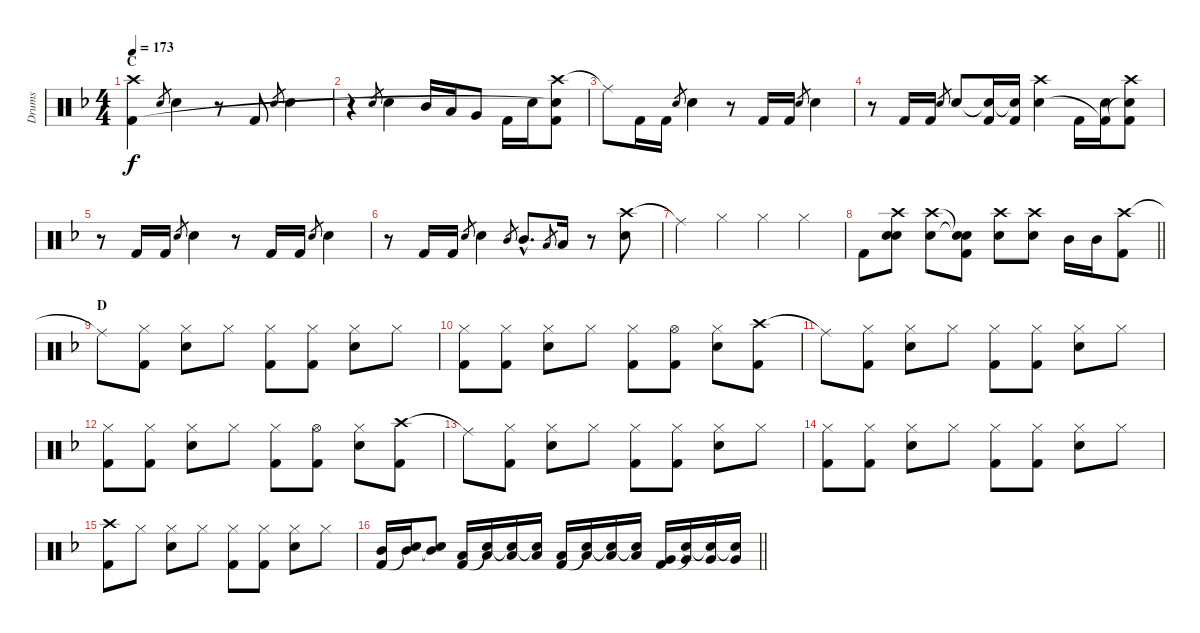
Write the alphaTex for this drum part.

\track ("Drums" "Drums") {instrument percussion}
\staff {score}
\articulation defaults
\ts (4 4)
\section ("" "C")
\tempo 173
\clef neutral
\ks dminor
("Crash high (hit)" "Kick (hit) 2").4{dy f} "Snare (hit) 2".8{gr} "Snare (hit) 2".4 r.8 "Kick (hit) 2".8 "Snare (hit) 2".8{gr} "Snare (hit) 2".4 |
r.4 "Snare (hit) 2".8{gr} "Snare (hit) 2".4 "Mid Tom (hit)".16 "Low Tom (hit)".16 "Very Low Tom (hit)".8 "Kick (hit) 2".16 "Snare (hit) 2".16 ("Crash high (hit)" "Snare (hit) 2"{t} "Kick (hit) 2").8 |
"Ride (middle)"{t}.8 "Kick (hit) 2".16 "Kick (hit) 2".16 "Snare (hit) 2".8{gr} "Snare (hit) 2".4 r.8 "Kick (hit) 2".16 "Kick (hit) 2".16 "Snare (hit) 2".8{gr} "Snare (hit) 2".4 |
r.8 "Kick (hit) 2".16 "Kick (hit) 2".16 "Snare (hit) 2".8{gr} "Snare (hit) 2".8 ("Snare (hit)"{t} "Kick (hit) 2").16 ("Snare (hit)"{t} "Kick (hit) 2").16 ("Crash high (hit)" "Snare (hit) 2").4 "Kick (hit) 2".16 ("Snare (hit) 2" "Kick (hit) 2"{t}).16 ("Crash high (hit)" "Snare (hit)"{t} "Kick (hit) 2").8 |
r.8 "Kick (hit) 2".16 "Kick (hit) 2".16 "Snare (hit) 2".8{gr} "Snare (hit) 2".4 r.8 "Kick (hit) 2".16 "Kick (hit) 2".16 "Snare (hit) 2".8{gr} "Snare (hit) 2".4 |
r.8 "Kick (hit) 2".16 "Kick (hit) 2".16 "Snare (hit) 2".8{gr} "Snare (hit) 2".4 "Mid Tom (hit)".8{gr} "Mid Tom (hit)"{hac}.8{d} "Low Tom (hit)".8{gr} "Low Tom (hit)".16 r.8 ("Crash high (hit)" "Snare (hit) 2").8 |
"Ride (middle)"{t}.4 "Hi-Hat (closed)".4 "Hi-Hat (closed)".4 "Hi-Hat (closed)".4 |
\barLineRight lightlight "Kick (hit) 2".8
("Crash high (hit)" "Snare (hit) 2" "Snare (hit)").8 ("Crash high (hit)" "Snare (hit) 2").8 ("Snare (hit)"{t} "Snare (hit)"{t} "Kick (hit) 2").8 ("Crash high (hit)" "Snare (hit) 2").8 ("Crash high (hit)" "Snare (hit) 2").8 "Mid Tom (hit)".16 "Mid Tom (hit)".16 ("Crash high (hit)" "Kick (hit) 2").8 |
\section ("" "D")
"Ride (middle)"{t}.8 ("Hi-Hat (closed)" "Kick (hit) 2").8 ("Hi-Hat (closed)" "Snare (hit) 2").8 "Hi-Hat (closed)".8 ("Hi-Hat (closed)" "Kick (hit) 2").8 ("Hi-Hat (closed)" "Kick (hit) 2").8 ("Hi-Hat (closed)" "Snare (hit) 2").8 "Hi-Hat (closed)".8 |
("Hi-Hat (closed)" "Kick (hit) 2").8 ("Hi-Hat (closed)" "Kick (hit) 2").8 ("Hi-Hat (closed)" "Snare (hit) 2").8 "Hi-Hat (closed)".8 ("Hi-Hat (closed)" "Kick (hit) 2").8 ("Hi-Hat (open)" "Kick (hit) 2").8 ("Hi-Hat (closed)" "Snare (hit) 2").8 ("Crash high (hit)" "Kick (hit) 2").8 |
"Ride (middle)"{t}.8 ("Hi-Hat (closed)" "Kick (hit) 2").8 ("Hi-Hat (closed)" "Snare (hit) 2").8 "Hi-Hat (closed)".8 ("Hi-Hat (closed)" "Kick (hit) 2").8 ("Hi-Hat (closed)" "Kick (hit) 2").8 ("Hi-Hat (closed)" "Snare (hit) 2").8 "Hi-Hat (closed)".8 |
("Hi-Hat (closed)" "Kick (hit) 2").8 ("Hi-Hat (closed)" "Kick (hit) 2").8 ("Hi-Hat (closed)" "Snare (hit) 2").8 "Hi-Hat (closed)".8 ("Hi-Hat (closed)" "Kick (hit) 2").8 ("Hi-Hat (open)" "Kick (hit) 2").8 ("Hi-Hat (closed)" "Snare (hit) 2").8 ("Crash high (hit)" "Kick (hit) 2").8 |
"Ride (middle)"{t}.8 ("Hi-Hat (closed)" "Kick (hit) 2").8 ("Hi-Hat (closed)" "Snare (hit) 2").8 "Hi-Hat (closed)".8 ("Hi-Hat (closed)" "Kick (hit) 2").8 ("Hi-Hat (closed)" "Kick (hit) 2").8 ("Hi-Hat (closed)" "Snare (hit) 2").8 "Hi-Hat (closed)".8 |
("Hi-Hat (closed)" "Kick (hit) 2").8 ("Hi-Hat (closed)" "Kick (hit) 2").8 ("Hi-Hat (closed)" "Snare (hit) 2").8 "Hi-Hat (closed)".8 ("Hi-Hat (closed)" "Kick (hit) 2").8 ("Hi-Hat (closed)" "Kick (hit) 2").8 ("Hi-Hat (closed)" "Snare (hit) 2").8 "Hi-Hat (closed)".8 |
("Crash high (hit)" "Kick (hit) 2").8 "Hi-Hat (closed)".8 ("Hi-Hat (closed)" "Snare (hit) 2").8 "Hi-Hat (closed)".8 ("Hi-Hat (closed)" "Kick (hit) 2").8 ("Hi-Hat (closed)" "Kick (hit) 2").8 ("Hi-Hat (closed)" "Snare (hit) 2").8 "Hi-Hat (closed)".8 |
\barLineRight lightlight
("Mid Tom (hit)" "Kick (hit) 2").16 ("Mid Tom (hit)" "Snare (hit)"{t}).16 ("Mid Tom (hit)" "Snare (hit)"{t}).8 ("Low Tom (hit)" "Kick (hit) 2").16 ("Low Tom (hit)" "Snare (hit)"{t}).16 ("Low Tom (hit)" "Snare (hit)"{t}).16 ("Low Tom (hit)" "Snare (hit)"{t}).16 ("Low Tom (hit)" "Kick (hit) 2").16 ("Low Tom (hit)" "Snare (hit)"{t}).16 ("Low Tom (hit)" "Snare (hit)"{t}).16 ("Low Tom (hit)" "Snare (hit)"{t}).16 ("Very Low Tom (hit)" "Kick (hit) 2").16 ("Very Low Tom (hit)" "Snare (hit)"{t}).16 ("Very Low Tom (hit)" "Snare (hit)"{t}).16 ("Very Low Tom (hit)" "Snare (hit)"{t}).16
